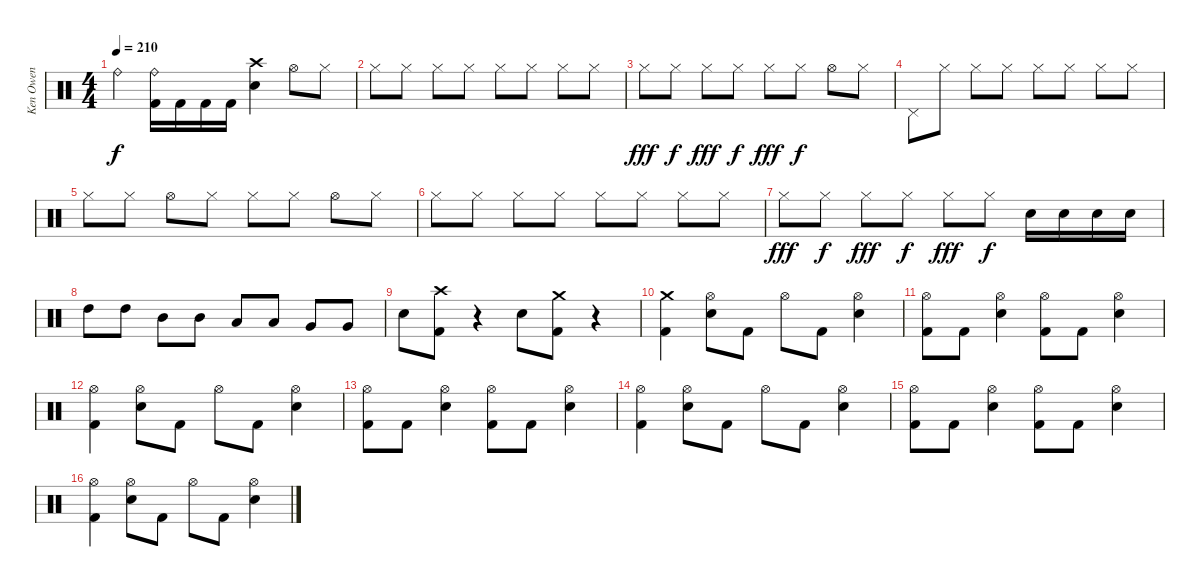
\track ("Ken Owen" "Ken Owen") {instrument percussion}
\staff {score}
\articulation defaults
\ts (4 4)
\tempo 210
\clef neutral
\ks c "Ride (bell)".4{dy f}
("Ride (bell)" "Kick (hit) 2").16 "Kick (hit) 2".16 "Kick (hit) 2".16 "Kick (hit) 2".16 ("Crash high (hit)" "Snare (hit) 2").4 "Hi-Hat (open)".8 "Hi-Hat (closed)".8 |
"Hi-Hat (closed)".8 "Hi-Hat (closed)".8 "Hi-Hat (closed)".8 "Hi-Hat (closed)".8 "Hi-Hat (closed)".8 "Hi-Hat (closed)".8 "Hi-Hat (closed)".8 "Hi-Hat (closed)".8 |
"Hi-Hat (closed)".8{dy fff} "Hi-Hat (closed)".8{dy f} "Hi-Hat (closed)".8{dy fff} "Hi-Hat (closed)".8{dy f} "Hi-Hat (closed)".8{dy fff} "Hi-Hat (closed)".8{dy f} "Hi-Hat (open)".8 "Hi-Hat (closed)".8 |
"Pedal Hi-Hat (hit)".8 "Hi-Hat (closed)".8 "Hi-Hat (closed)".8 "Hi-Hat (closed)".8 "Hi-Hat (closed)".8 "Hi-Hat (closed)".8 "Hi-Hat (closed)".8 "Hi-Hat (closed)".8 |
"Hi-Hat (closed)".8 "Hi-Hat (closed)".8 "Hi-Hat (open)".8 "Hi-Hat (closed)".8 "Hi-Hat (closed)".8 "Hi-Hat (closed)".8 "Hi-Hat (open)".8 "Hi-Hat (closed)".8 |
"Hi-Hat (closed)".8 "Hi-Hat (closed)".8 "Hi-Hat (closed)".8 "Hi-Hat (closed)".8 "Hi-Hat (closed)".8 "Hi-Hat (closed)".8 "Hi-Hat (closed)".8 "Hi-Hat (closed)".8 |
"Hi-Hat (closed)".8{dy fff} "Hi-Hat (closed)".8{dy f} "Hi-Hat (closed)".8{dy fff} "Hi-Hat (closed)".8{dy f} "Hi-Hat (closed)".8{dy fff} "Hi-Hat (closed)".8{dy f} "Snare (hit) 2".16 "Snare (hit) 2".16 "Snare (hit) 2".16 "Snare (hit) 2".16 |
"High Tom (hit)".8 "High Tom (hit)".8 "Mid Tom (hit)".8 "Mid Tom (hit)".8 "Low Tom (hit)".8 "Low Tom (hit)".8 "Very Low Tom (hit)".8 "Very Low Tom (hit)".8 |
"Snare (hit) 2".8 ("Crash high (hit)" "Kick (hit) 2").8 r.4 "Snare (hit) 2".8 ("Crash medium (hit)" "Kick (hit) 2").8 r.4 |
("Crash medium (hit)" "Kick (hit) 2").4 ("Hi-Hat (open)" "Snare (hit) 2").8 "Kick (hit) 2".8 "Hi-Hat (open)".8 "Kick (hit) 2".8 ("Hi-Hat (open)" "Snare (hit) 2").4 |
("Hi-Hat (open)" "Kick (hit) 2").8 "Kick (hit) 2".8 ("Hi-Hat (open)" "Snare (hit) 2").4 ("Hi-Hat (open)" "Kick (hit) 2").8 "Kick (hit) 2".8 ("Hi-Hat (open)" "Snare (hit) 2").4 |
("Hi-Hat (open)" "Kick (hit) 2").4 ("Hi-Hat (open)" "Snare (hit) 2").8 "Kick (hit) 2".8 "Hi-Hat (open)".8 "Kick (hit) 2".8 ("Hi-Hat (open)" "Snare (hit) 2").4 |
("Hi-Hat (open)" "Kick (hit) 2").8 "Kick (hit) 2".8 ("Hi-Hat (open)" "Snare (hit) 2").4 ("Hi-Hat (open)" "Kick (hit) 2").8 "Kick (hit) 2".8 ("Hi-Hat (open)" "Snare (hit) 2").4 |
("Hi-Hat (open)" "Kick (hit) 2").4 ("Hi-Hat (open)" "Snare (hit) 2").8 "Kick (hit) 2".8 "Hi-Hat (open)".8 "Kick (hit) 2".8 ("Hi-Hat (open)" "Snare (hit) 2").4 |
("Hi-Hat (open)" "Kick (hit) 2").8 "Kick (hit) 2".8 ("Hi-Hat (open)" "Snare (hit) 2").4 ("Hi-Hat (open)" "Kick (hit) 2").8 "Kick (hit) 2".8 ("Hi-Hat (open)" "Snare (hit) 2").4 |
("Hi-Hat (open)" "Kick (hit) 2").4 ("Hi-Hat (open)" "Snare (hit) 2").8 "Kick (hit) 2".8 "Hi-Hat (open)".8 "Kick (hit) 2".8 ("Hi-Hat (open)" "Snare (hit) 2").4
